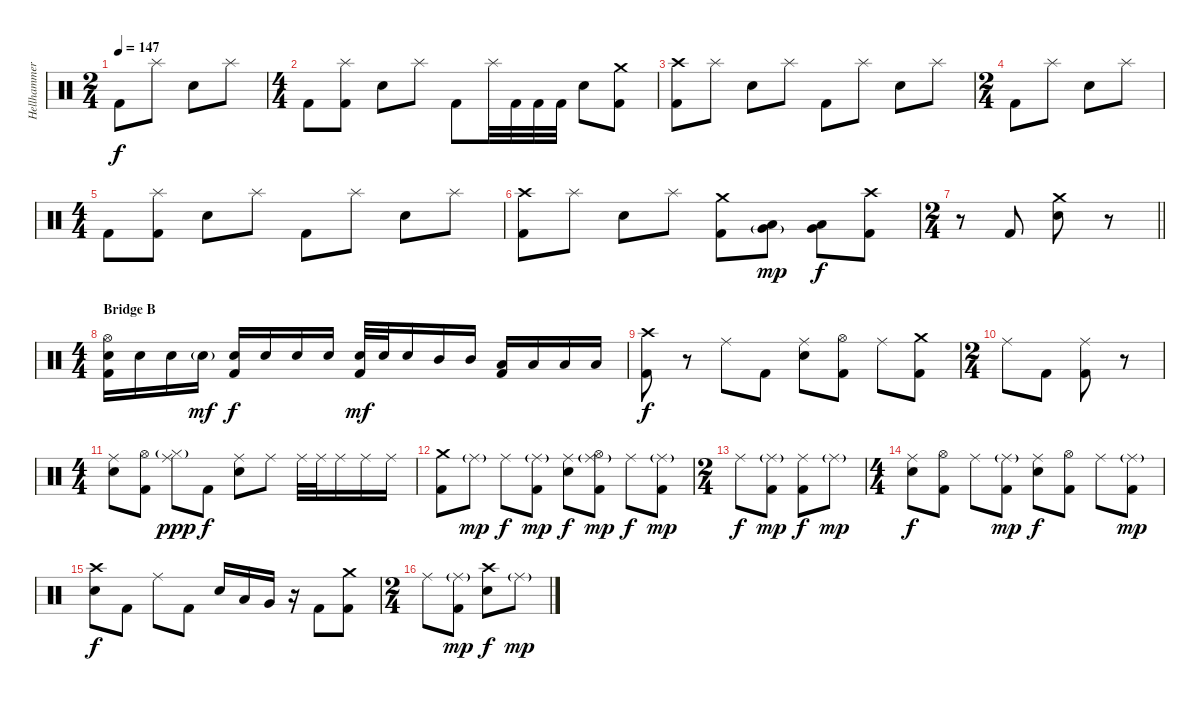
\track ("Hellhammer" "Hellhammer") {instrument percussion}
\staff {score}
\articulation defaults
\ts (2 4)
\tempo 147
\clef neutral
\ks c "Kick (hit) 2".8{dy f} "Splash (hit)".8 "Electric Snare (hit)".8 "Splash (hit)".8
|
\ts (4 4)
"Kick (hit) 2".8 ("Splash (hit)" "Kick (hit) 2").8 "Electric Snare (hit)".8 "Splash (hit)".8 "Kick (hit) 2".8 "Splash (hit)".32 "Kick (hit) 2".32 "Kick (hit) 2".32 "Kick (hit) 2".32 "Electric Snare (hit)".8 ("Crash medium (hit)" "Kick (hit) 2").8 |
("Crash high (hit)" "Kick (hit) 2").8 "Splash (hit)".8 "Electric Snare (hit)".8 "Splash (hit)".8 "Kick (hit) 2".8 "Splash (hit)".8 "Electric Snare (hit)".8 "Splash (hit)".8 |
\ts (2 4)
"Kick (hit) 2".8 "Splash (hit)".8 "Electric Snare (hit)".8 "Splash (hit)".8 |
\ts (4 4)
"Kick (hit) 2".8 ("Splash (hit)" "Kick (hit) 2").8 "Electric Snare (hit)".8 "Splash (hit)".8 "Kick (hit) 2".8 "Splash (hit)".8 "Electric Snare (hit)".8 "Splash (hit)".8 |
("Crash high (hit)" "Kick (hit) 2").8 "Splash (hit)".8 "Electric Snare (hit)".8 "Splash (hit)".8 ("Crash medium (hit)" "Kick (hit) 2").8 ("Low Tom (hit)" "Very Low Tom (hit)"{g}).8{dy mp} ("Low Tom (hit)" "Very Low Tom (hit)").8{dy f} ("Crash high (hit)" "Kick (hit) 2").8 |
\ts (2 4)
\barLineRight lightlight
r.8 "Kick (hit) 2".8 ("Crash medium (hit)" "Electric Snare (hit)").8 r.8 |
\ts (4 4)
\section ("" "Bridge B")
("Hi-Hat (open)" "Electric Snare (hit)" "Kick (hit) 2").16 "Electric Snare (hit)".16 "Electric Snare (hit)".16 "Electric Snare (hit)"{g}.16{dy mf} ("Electric Snare (hit)" "Kick (hit) 2").16{dy f} "Electric Snare (hit)".16 "Electric Snare (hit)".16 "Electric Snare (hit)".16 ("Electric Snare (hit)" "Kick (hit) 2").32{dy mf} "Electric Snare (hit)".32 "Electric Snare (hit)".16 "Mid Tom (hit)".16 "Mid Tom (hit)".16 ("Low Tom (hit)" "Kick (hit) 2").16 "Low Tom (hit)".16 "Low Tom (hit)".16 "Low Tom (hit)".16 |
("Crash high (hit)" "Kick (hit) 2").8{dy f} r.8 "Ride (middle)".8 "Kick (hit) 2".8 ("Ride (middle)" "Electric Snare (hit)").8 ("Hi-Hat (open)" "Kick (hit) 2").8 "Ride (middle)".8 ("Crash medium (hit)" "Kick (hit) 2").8 |
\ts (2 4)
"Ride (middle)".8 "Kick (hit) 2".8 ("Ride (middle)" "Kick (hit) 2").8 r.8 |
\ts (4 4)
("Ride (middle)" "Electric Snare (hit)").8 ("Hi-Hat (open)" "Kick (hit) 2").8 ("Ride (middle)" "Hi-Hat (closed)"{g}).8{dy ppp} "Kick (hit) 2".8{dy f} ("Ride (middle)" "Electric Snare (hit)").8 "Ride (middle)".8 "Ride (middle)".32 "Ride (middle)".32 "Ride (middle)".16 "Ride (middle)".16 "Ride (middle)".16 |
("Crash medium (hit)" "Kick (hit) 2").8 "Ride (middle)"{g}.8{dy mp} "Ride (middle)".8{dy f} ("Ride (middle)"{g} "Kick (hit) 2").8{dy mp} ("Ride (middle)" "Electric Snare (hit)").8{dy f} ("Ride (middle)"{g} "Hi-Hat (open)" "Kick (hit) 2").8{dy mp} "Ride (middle)".8{dy f} ("Ride (middle)"{g} "Kick (hit) 2").8{dy mp} |
\ts (2 4)
"Ride (middle)".8{dy f} ("Ride (middle)"{g} "Kick (hit) 2").8{dy mp} ("Ride (middle)" "Kick (hit) 2").8{dy f} "Ride (middle)"{g}.8{dy mp} |
\ts (4 4)
("Ride (middle)" "Electric Snare (hit)").8{dy f} ("Hi-Hat (open)" "Kick (hit) 2").8 "Ride (middle)".8 ("Ride (middle)"{g} "Kick (hit) 2").8{dy mp} ("Ride (middle)" "Electric Snare (hit)").8{dy f} ("Hi-Hat (open)" "Kick (hit) 2").8 "Ride (middle)".8 ("Ride (middle)"{g} "Kick (hit) 2").8{dy mp} |
("Crash high (hit)" "Electric Snare (hit)").8{dy f} "Kick (hit) 2".8 "Ride (middle)".8 "Kick (hit) 2".8 "Electric Snare (hit)".16 "Low Tom (hit)".16 "Very Low Tom (hit)".16 r.16 "Kick (hit) 2".8 ("Crash medium (hit)" "Kick (hit) 2").8 |
\ts (2 4)
"Ride (middle)".8 ("Ride (middle)"{g} "Kick (hit) 2").8{dy mp} ("Crash high (hit)" "Electric Snare (hit)").8{dy f} "Ride (middle)"{g}.8{dy mp}
